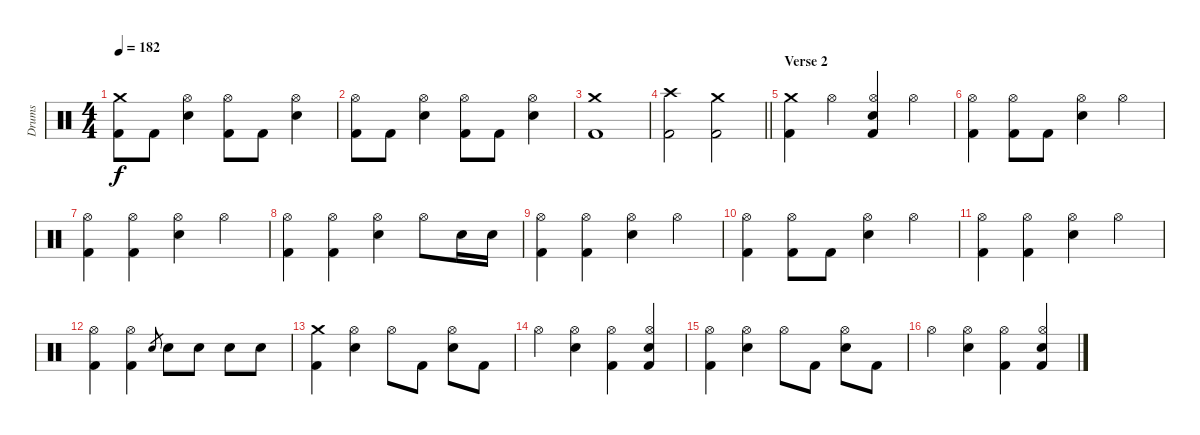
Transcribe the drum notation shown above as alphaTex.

\track ("Drums" "Drums") {instrument percussion}
\staff {score}
\articulation defaults
\ts (4 4)
\tempo 182
\clef neutral
\ks c
("Crash medium (hit)"{t} "Kick (hit) 2"{t}).8{dy f} "Kick (hit) 2".8 ("Hi-Hat (open)" "Electric Snare (hit)").4 ("Hi-Hat (open)" "Kick (hit) 2").8 "Kick (hit) 2".8 ("Hi-Hat (open)" "Electric Snare (hit)").4 |
("Hi-Hat (open)" "Kick (hit) 2").8 "Kick (hit) 2".8 ("Hi-Hat (open)" "Electric Snare (hit)").4 ("Hi-Hat (open)" "Kick (hit) 2").8 "Kick (hit) 2".8 ("Hi-Hat (open)" "Electric Snare (hit)").4 |
("Crash medium (hit)" "Kick (hit) 2").1 |
\barLineRight lightlight
("Crash high (hit)" "Kick (hit) 2").2 ("Crash medium (hit)" "Kick (hit) 2").2 |
\section ("" "Verse 2")
("Crash medium (hit)" "Kick (hit) 2").4 "Hi-Hat (open)".4 ("Hi-Hat (open)" "Electric Snare (hit)" "Kick (hit) 2").4 "Hi-Hat (open)".4 |
("Hi-Hat (open)" "Kick (hit) 2").4 ("Hi-Hat (open)" "Kick (hit) 2").8 "Kick (hit) 2".8 ("Hi-Hat (open)" "Electric Snare (hit)").4 "Hi-Hat (open)".4 |
("Hi-Hat (open)" "Kick (hit) 2").4 ("Hi-Hat (open)" "Kick (hit) 2").4 ("Hi-Hat (open)" "Electric Snare (hit)").4 "Hi-Hat (open)".4 |
("Hi-Hat (open)" "Kick (hit) 2").4 ("Hi-Hat (open)" "Kick (hit) 2").4 ("Hi-Hat (open)" "Electric Snare (hit)").4 "Hi-Hat (open)".8 "Electric Snare (hit)".16 "Electric Snare (hit)".16 |
("Hi-Hat (open)" "Kick (hit) 2").4 ("Hi-Hat (open)" "Kick (hit) 2").4 ("Hi-Hat (open)" "Electric Snare (hit)").4 "Hi-Hat (open)".4 |
("Hi-Hat (open)" "Kick (hit) 2").4 ("Hi-Hat (open)" "Kick (hit) 2").8 "Kick (hit) 2".8 ("Hi-Hat (open)" "Electric Snare (hit)").4 "Hi-Hat (open)".4 |
("Hi-Hat (open)" "Kick (hit) 2").4 ("Hi-Hat (open)" "Kick (hit) 2").4 ("Hi-Hat (open)" "Electric Snare (hit)").4 "Hi-Hat (open)".4 |
("Hi-Hat (open)" "Kick (hit) 2").4 ("Hi-Hat (open)" "Kick (hit) 2").4 "Electric Snare (hit)".8{gr} "Electric Snare (hit)".8 "Electric Snare (hit)".8 "Electric Snare (hit)".8 "Electric Snare (hit)".8 |
("Crash medium (hit)" "Kick (hit) 2").4 ("Hi-Hat (open)" "Electric Snare (hit)").4 "Hi-Hat (open)".8 "Kick (hit) 2".8 ("Hi-Hat (open)" "Electric Snare (hit)").8 "Kick (hit) 2".8 |
"Hi-Hat (open)".4 ("Hi-Hat (open)" "Electric Snare (hit)").4 ("Hi-Hat (open)" "Kick (hit) 2").4 ("Hi-Hat (open)" "Electric Snare (hit)" "Kick (hit) 2").4 |
("Hi-Hat (open)" "Kick (hit) 2").4 ("Hi-Hat (open)" "Electric Snare (hit)").4 "Hi-Hat (open)".8 "Kick (hit) 2".8 ("Hi-Hat (open)" "Electric Snare (hit)").8 "Kick (hit) 2".8 |
"Hi-Hat (open)".4 ("Hi-Hat (open)" "Electric Snare (hit)").4 ("Hi-Hat (open)" "Kick (hit) 2").4 ("Hi-Hat (open)" "Electric Snare (hit)" "Kick (hit) 2").4
